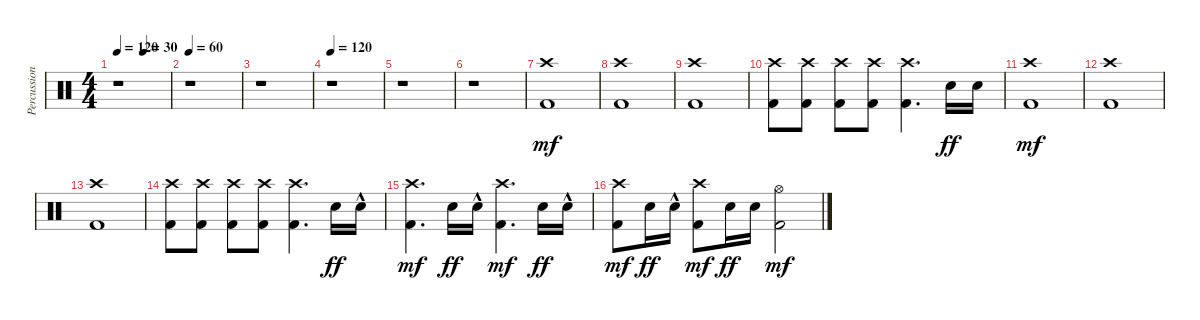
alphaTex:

\track ("Percussioni" "Percussion") {instrument percussion}
\staff {score}
\articulation defaults
\ts (4 4)
\tempo 120
\tempo (30 0.5)
\tempo 120
\clef neutral
\ks c
r.1{dy mf} |
\tempo 60
r.1 |
r.1 |
\tempo 120
r.1 |
r.1 |
r.1 |
("Kick (hit) 2" "Crash high (hit)").1 |
("Kick (hit) 2" "Crash high (hit)").1 |
("Kick (hit) 2" "Crash high (hit)").1 |
("Kick (hit) 2" "Crash high (hit)").8 ("Kick (hit) 2" "Crash high (hit)").8 ("Kick (hit) 2" "Crash high (hit)").8 ("Kick (hit) 2" "Crash high (hit)").8 ("Kick (hit) 2" "Crash high (hit)").4{d} "Snare (hit) 2".16{dy ff} "Snare (hit) 2".16 |
("Kick (hit) 2" "Crash high (hit)").1{dy mf} |
("Kick (hit) 2" "Crash high (hit)").1 |
("Kick (hit) 2" "Crash high (hit)").1 |
("Kick (hit) 2" "Crash high (hit)").8 ("Kick (hit) 2" "Crash high (hit)").8 ("Kick (hit) 2" "Crash high (hit)").8 ("Kick (hit) 2" "Crash high (hit)").8 ("Kick (hit) 2" "Crash high (hit)").4{d} "Snare (hit) 2".16{dy ff} "Snare (hit) 2"{hac}.16 |
("Kick (hit) 2" "Crash high (hit)").4{d dy mf} "Snare (hit) 2".16{dy ff} "Snare (hit) 2"{hac}.16 ("Kick (hit) 2" "Crash high (hit)").4{d dy mf} "Snare (hit) 2".16{dy ff} "Snare (hit) 2"{hac}.16 |
("Kick (hit) 2" "Crash high (hit)").8{dy mf} "Snare (hit) 2".16{dy ff} "Snare (hit) 2"{hac}.16 ("Kick (hit) 2" "Crash high (hit)").8{dy mf} "Snare (hit) 2".16{dy ff} "Snare (hit) 2".16 ("Kick (hit) 2" "Hi-Hat (open)").2{dy mf}
